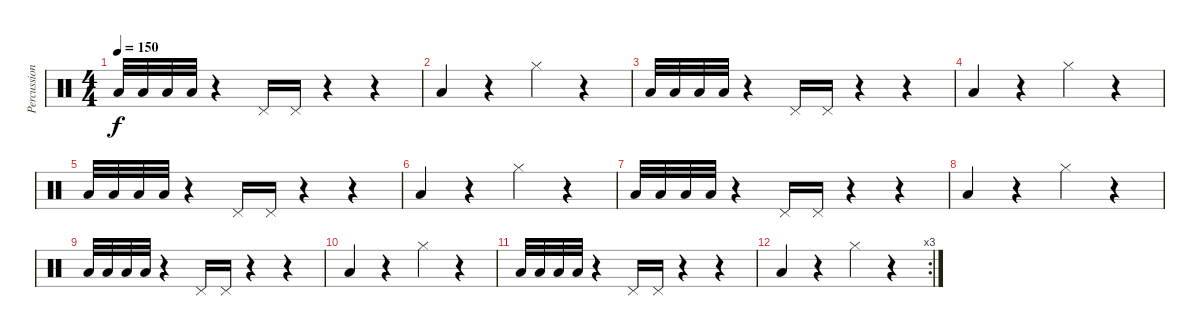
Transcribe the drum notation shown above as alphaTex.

\track ("Percussion" "Percussion") {instrument percussion}
\staff {score}
\articulation defaults
\ts (4 4)
\tempo 150
\clef neutral
\ks c "Low Tom (hit)".32{dy f} "Low Tom (hit)".32 "Low Tom (hit)".32 "Low Tom (hit)".32
r.4 "Pedal Hi-Hat (hit)".16 "Pedal Hi-Hat (hit)".16 r.4 r.4 |
"Low Tom (hit)".4 r.4 "Hi-Hat (closed)".4 r.4 |
"Low Tom (hit)".32 "Low Tom (hit)".32 "Low Tom (hit)".32 "Low Tom (hit)".32 r.4 "Pedal Hi-Hat (hit)".16 "Pedal Hi-Hat (hit)".16 r.4 r.4 |
"Low Tom (hit)".4 r.4 "Hi-Hat (closed)".4 r.4 |
"Low Tom (hit)".32 "Low Tom (hit)".32 "Low Tom (hit)".32 "Low Tom (hit)".32 r.4 "Pedal Hi-Hat (hit)".16 "Pedal Hi-Hat (hit)".16 r.4 r.4 |
"Low Tom (hit)".4 r.4 "Hi-Hat (closed)".4 r.4 |
"Low Tom (hit)".32 "Low Tom (hit)".32 "Low Tom (hit)".32 "Low Tom (hit)".32 r.4 "Pedal Hi-Hat (hit)".16 "Pedal Hi-Hat (hit)".16 r.4 r.4 |
"Low Tom (hit)".4 r.4 "Hi-Hat (closed)".4 r.4 |
"Low Tom (hit)".32 "Low Tom (hit)".32 "Low Tom (hit)".32 "Low Tom (hit)".32 r.4 "Pedal Hi-Hat (hit)".16 "Pedal Hi-Hat (hit)".16 r.4 r.4 |
"Low Tom (hit)".4 r.4 "Hi-Hat (closed)".4 r.4 |
"Low Tom (hit)".32 "Low Tom (hit)".32 "Low Tom (hit)".32 "Low Tom (hit)".32 r.4 "Pedal Hi-Hat (hit)".16 "Pedal Hi-Hat (hit)".16 r.4 r.4 |
\rc 3 "Low Tom (hit)".4
r.4 "Hi-Hat (closed)".4 r.4
